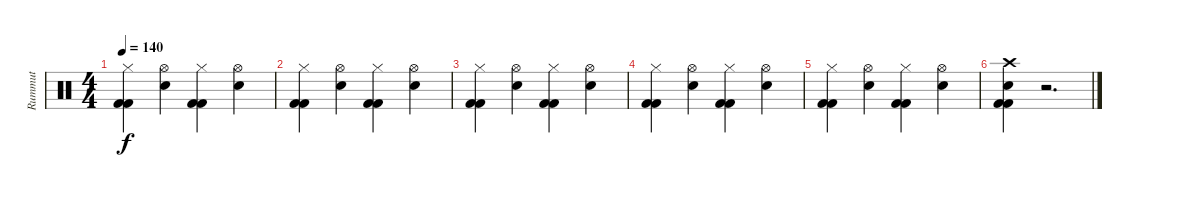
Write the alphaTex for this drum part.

\track ("Rummut" "Rummut") {instrument percussion}
\staff {score}
\articulation defaults
\ts (4 4)
\tempo 140
\clef neutral
\ks c
("Hi-Hat (closed)" "Kick (hit) 2" "Kick (hit) 2").4{dy f} ("Hi-Hat (open)" "Electric Snare (hit)").4 ("Hi-Hat (closed)" "Kick (hit) 2" "Kick (hit) 2").4 ("Hi-Hat (open)" "Electric Snare (hit)").4 |
("Hi-Hat (closed)" "Kick (hit) 2" "Kick (hit) 2").4 ("Hi-Hat (open)" "Electric Snare (hit)").4 ("Hi-Hat (closed)" "Kick (hit) 2" "Kick (hit) 2").4 ("Hi-Hat (open)" "Electric Snare (hit)").4 |
("Hi-Hat (closed)" "Kick (hit) 2" "Kick (hit) 2").4 ("Hi-Hat (open)" "Electric Snare (hit)").4 ("Hi-Hat (closed)" "Kick (hit) 2" "Kick (hit) 2").4 ("Hi-Hat (open)" "Electric Snare (hit)").4 |
("Hi-Hat (closed)" "Kick (hit) 2" "Kick (hit) 2").4 ("Hi-Hat (open)" "Electric Snare (hit)").4 ("Hi-Hat (closed)" "Kick (hit) 2" "Kick (hit) 2").4 ("Hi-Hat (open)" "Electric Snare (hit)").4 |
("Hi-Hat (closed)" "Kick (hit) 2" "Kick (hit) 2").4 ("Hi-Hat (open)" "Electric Snare (hit)").4 ("Hi-Hat (closed)" "Kick (hit) 2" "Kick (hit) 2").4 ("Hi-Hat (open)" "Electric Snare (hit)").4 |
("Crash high (hit)" "Electric Snare (hit)" "Kick (hit) 2" "Kick (hit) 2").4 r.2{d}
